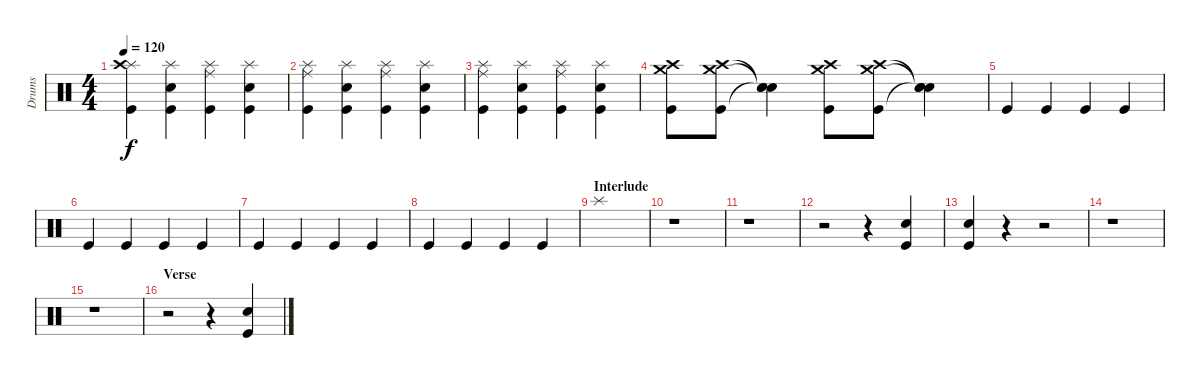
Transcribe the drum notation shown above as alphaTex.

\track ("Drums" "Drums") {instrument percussion}
\staff {score}
\articulation defaults
\ts (4 4)
\tempo 120
\clef neutral
\ks c
("Splash (hit)" "Crash high (hit)" "Kick (hit)").4{dy f} ("Splash (hit)" "Snare (hit) 2" "Kick (hit)").4 ("Splash (hit)" "Ride (middle)" "Kick (hit)").4 ("Splash (hit)" "Snare (hit) 2" "Kick (hit)").4 |
("Splash (hit)" "Ride (middle)" "Kick (hit)").4 ("Splash (hit)" "Snare (hit) 2" "Kick (hit)").4 ("Splash (hit)" "Ride (middle)" "Kick (hit)").4 ("Splash (hit)" "Snare (hit) 2" "Kick (hit)").4 |
("Splash (hit)" "Ride (middle)" "Kick (hit)").4 ("Splash (hit)" "Snare (hit) 2" "Kick (hit)").4 ("Splash (hit)" "Ride (middle)" "Kick (hit)").4 ("Splash (hit)" "Snare (hit) 2" "Kick (hit)").4 |
("Crash medium (hit)" "Crash high (hit)" "Kick (hit)").8 ("Crash medium (hit)" "Crash high (hit)" "Kick (hit)").8 ("Snare (hit)"{t} "Snare (hit)"{t} "Snare (hit)"{t}).4 ("Crash medium (hit)" "Crash high (hit)" "Kick (hit)").8 ("Crash medium (hit)" "Crash high (hit)" "Kick (hit)").8 ("Snare (hit)"{t} "Snare (hit)"{t} "Snare (hit)"{t}).4 |
"Kick (hit)".4 "Kick (hit)".4 "Kick (hit)".4 "Kick (hit)".4 |
"Kick (hit)".4 "Kick (hit)".4 "Kick (hit)".4 "Kick (hit)".4 |
"Kick (hit)".4 "Kick (hit)".4 "Kick (hit)".4 "Kick (hit)".4 |
"Kick (hit)".4 "Kick (hit)".4 "Kick (hit)".4 "Kick (hit)".4 |
\section ("" "Interlude")
"Splash (hit)".1 |
r.1 |
r.1 |
r.2 r.4 ("Snare (hit) 2" "Kick (hit)").4 |
("Snare (hit) 2" "Kick (hit)").4 r.4 r.2 |
r.1 |
r.1 |
\section ("" "Verse")
r.2 r.4 ("Snare (hit) 2" "Kick (hit)").4
